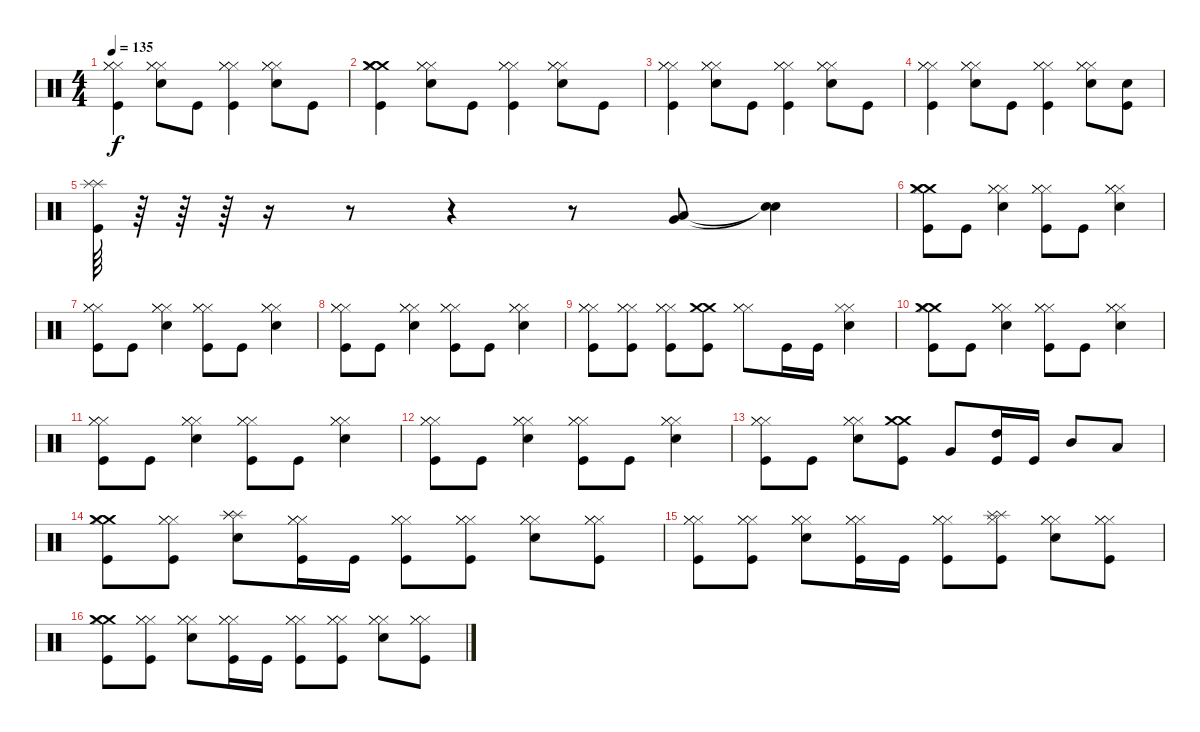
\track "" {instrument percussion}
\staff {score}
\articulation defaults
\ts (4 4)
\tempo 135
\clef neutral
\ks c
("Hi-Hat (closed)" "Hi-Hat (closed)" "Hi-Hat (closed)" "Kick (hit)").4{dy f} ("Hi-Hat (closed)" "Hi-Hat (closed)" "Hi-Hat (closed)" "Metronome (bell)").8 "Kick (hit)".8 ("Hi-Hat (closed)" "Hi-Hat (closed)" "Hi-Hat (closed)" "Kick (hit)").4 ("Hi-Hat (closed)" "Hi-Hat (closed)" "Hi-Hat (closed)" "Metronome (bell)").8 "Kick (hit)".8 |
("Crash medium (hit)" "Crash medium (hit)" "Hi-Hat (closed)" "Kick (hit)").4 ("Hi-Hat (closed)" "Hi-Hat (closed)" "Hi-Hat (closed)" "Metronome (bell)").8 "Kick (hit)".8 ("Hi-Hat (closed)" "Hi-Hat (closed)" "Hi-Hat (closed)" "Kick (hit)").4 ("Hi-Hat (closed)" "Hi-Hat (closed)" "Hi-Hat (closed)" "Metronome (bell)").8 "Kick (hit)".8 |
("Hi-Hat (closed)" "Hi-Hat (closed)" "Hi-Hat (closed)" "Kick (hit)").4 ("Hi-Hat (closed)" "Hi-Hat (closed)" "Hi-Hat (closed)" "Metronome (bell)").8 "Kick (hit)".8 ("Hi-Hat (closed)" "Hi-Hat (closed)" "Hi-Hat (closed)" "Kick (hit)").4 ("Hi-Hat (closed)" "Hi-Hat (closed)" "Hi-Hat (closed)" "Metronome (bell)").8 "Kick (hit)".8 |
("Hi-Hat (closed)" "Hi-Hat (closed)" "Hi-Hat (closed)" "Kick (hit)").4 ("Hi-Hat (closed)" "Hi-Hat (closed)" "Hi-Hat (closed)" "Metronome (bell)").8 "Kick (hit)".8 ("Hi-Hat (closed)" "Hi-Hat (closed)" "Hi-Hat (closed)" "Kick (hit)").4 ("Hi-Hat (closed)" "Hi-Hat (closed)" "Hi-Hat (closed)" "Metronome (bell)").8 ("Metronome (bell)" "Kick (hit)").8 |
("Splash (hit)" "Splash (hit)" "Kick (hit)").64 r.64 r.64 r.64 r.16 r.8 r.4 r.8 ("Very Low Tom (hit)" "Low Floor Tom (hit)").8 ("Snare (hit)"{t} "Snare (hit)"{t}).4 |
("Crash medium (hit)" "Crash medium (hit)" "Hi-Hat (closed)" "Kick (hit)").8 "Kick (hit)".8 ("Hi-Hat (closed)" "Hi-Hat (closed)" "Hi-Hat (closed)" "Metronome (bell)").4 ("Hi-Hat (closed)" "Hi-Hat (closed)" "Hi-Hat (closed)" "Kick (hit)").8 "Kick (hit)".8 ("Hi-Hat (closed)" "Hi-Hat (closed)" "Hi-Hat (closed)" "Metronome (bell)").4 |
("Hi-Hat (closed)" "Hi-Hat (closed)" "Hi-Hat (closed)" "Kick (hit)").8 "Kick (hit)".8 ("Hi-Hat (closed)" "Hi-Hat (closed)" "Hi-Hat (closed)" "Metronome (bell)").4 ("Hi-Hat (closed)" "Hi-Hat (closed)" "Hi-Hat (closed)" "Kick (hit)").8 "Kick (hit)".8 ("Hi-Hat (closed)" "Hi-Hat (closed)" "Hi-Hat (closed)" "Metronome (bell)").4 |
("Hi-Hat (closed)" "Hi-Hat (closed)" "Hi-Hat (closed)" "Kick (hit)").8 "Kick (hit)".8 ("Hi-Hat (closed)" "Hi-Hat (closed)" "Hi-Hat (closed)" "Metronome (bell)").4 ("Hi-Hat (closed)" "Hi-Hat (closed)" "Hi-Hat (closed)" "Kick (hit)").8 "Kick (hit)".8 ("Hi-Hat (closed)" "Hi-Hat (closed)" "Hi-Hat (closed)" "Metronome (bell)").4 |
("Hi-Hat (closed)" "Hi-Hat (closed)" "Hi-Hat (closed)" "Kick (hit)").8 ("Hi-Hat (closed)" "Hi-Hat (closed)" "Hi-Hat (closed)" "Kick (hit)").8 ("Hi-Hat (closed)" "Hi-Hat (closed)" "Hi-Hat (closed)" "Kick (hit)").8 ("Crash medium (hit)" "Crash medium (hit)" "Kick (hit)").8 ("Hi-Hat (closed)" "Hi-Hat (closed)" "Hi-Hat (closed)").8 "Kick (hit)".16 "Kick (hit)".16 ("Hi-Hat (closed)" "Hi-Hat (closed)" "Metronome (bell)").4 |
("Crash medium (hit)" "Crash medium (hit)" "Hi-Hat (closed)" "Kick (hit)").8 "Kick (hit)".8 ("Hi-Hat (closed)" "Hi-Hat (closed)" "Hi-Hat (closed)" "Metronome (bell)").4 ("Hi-Hat (closed)" "Hi-Hat (closed)" "Hi-Hat (closed)" "Kick (hit)").8 "Kick (hit)".8 ("Hi-Hat (closed)" "Hi-Hat (closed)" "Hi-Hat (closed)" "Metronome (bell)").4 |
("Hi-Hat (closed)" "Hi-Hat (closed)" "Hi-Hat (closed)" "Kick (hit)").8 "Kick (hit)".8 ("Hi-Hat (closed)" "Hi-Hat (closed)" "Hi-Hat (closed)" "Metronome (bell)").4 ("Hi-Hat (closed)" "Hi-Hat (closed)" "Hi-Hat (closed)" "Kick (hit)").8 "Kick (hit)".8 ("Hi-Hat (closed)" "Hi-Hat (closed)" "Hi-Hat (closed)" "Metronome (bell)").4 |
("Hi-Hat (closed)" "Hi-Hat (closed)" "Hi-Hat (closed)" "Kick (hit)").8 "Kick (hit)".8 ("Hi-Hat (closed)" "Hi-Hat (closed)" "Hi-Hat (closed)" "Metronome (bell)").4 ("Hi-Hat (closed)" "Hi-Hat (closed)" "Hi-Hat (closed)" "Kick (hit)").8 "Kick (hit)".8 ("Hi-Hat (closed)" "Hi-Hat (closed)" "Hi-Hat (closed)" "Metronome (bell)").4 |
("Hi-Hat (closed)" "Hi-Hat (closed)" "Hi-Hat (closed)" "Kick (hit)").8 "Kick (hit)".8 ("Hi-Hat (closed)" "Hi-Hat (closed)" "Hi-Hat (closed)" "Metronome (bell)").8 ("Crash medium (hit)" "Crash medium (hit)" "Kick (hit)").8 "Very Low Tom (hit)".8 ("High Tom (hit)" "Kick (hit)").16 "Kick (hit)".16 "Mid Tom (hit)".8 "Low Tom (hit)".8 |
("Crash medium (hit)" "Crash medium (hit)" "Hi-Hat (closed)" "Kick (hit)").8 ("Hi-Hat (closed)" "Hi-Hat (closed)" "Hi-Hat (closed)" "Kick (hit)").8 ("Splash (hit)" "Splash (hit)" "Splash (hit)" "Metronome (bell)").8 ("Hi-Hat (closed)" "Hi-Hat (closed)" "Hi-Hat (closed)" "Kick (hit)").16 "Kick (hit)".16 ("Hi-Hat (closed)" "Hi-Hat (closed)" "Hi-Hat (closed)" "Kick (hit)").8 ("Hi-Hat (closed)" "Hi-Hat (closed)" "Hi-Hat (closed)" "Kick (hit)").8 ("Hi-Hat (closed)" "Hi-Hat (closed)" "Hi-Hat (closed)" "Metronome (bell)").8 ("Hi-Hat (closed)" "Hi-Hat (closed)" "Hi-Hat (closed)" "Kick (hit)").8 |
("Hi-Hat (closed)" "Hi-Hat (closed)" "Hi-Hat (closed)" "Kick (hit)").8 ("Hi-Hat (closed)" "Hi-Hat (closed)" "Hi-Hat (closed)" "Kick (hit)").8 ("Hi-Hat (closed)" "Hi-Hat (closed)" "Hi-Hat (closed)" "Metronome (bell)").8 ("Hi-Hat (closed)" "Hi-Hat (closed)" "Hi-Hat (closed)" "Kick (hit)").16 "Kick (hit)".16 ("Hi-Hat (closed)" "Hi-Hat (closed)" "Hi-Hat (closed)" "Kick (hit)").8 ("Splash (hit)" "Splash (hit)" "Hi-Hat (closed)" "Kick (hit)").8 ("Hi-Hat (closed)" "Hi-Hat (closed)" "Hi-Hat (closed)" "Metronome (bell)").8 ("Hi-Hat (closed)" "Hi-Hat (closed)" "Hi-Hat (closed)" "Kick (hit)").8 |
("Crash medium (hit)" "Crash medium (hit)" "Hi-Hat (closed)" "Kick (hit)").8 ("Hi-Hat (closed)" "Hi-Hat (closed)" "Hi-Hat (closed)" "Kick (hit)").8 ("Hi-Hat (closed)" "Hi-Hat (closed)" "Hi-Hat (closed)" "Metronome (bell)").8 ("Hi-Hat (closed)" "Hi-Hat (closed)" "Hi-Hat (closed)" "Kick (hit)").16 "Kick (hit)".16 ("Hi-Hat (closed)" "Hi-Hat (closed)" "Hi-Hat (closed)" "Kick (hit)").8 ("Hi-Hat (closed)" "Hi-Hat (closed)" "Hi-Hat (closed)" "Kick (hit)").8 ("Hi-Hat (closed)" "Hi-Hat (closed)" "Hi-Hat (closed)" "Metronome (bell)").8 ("Hi-Hat (closed)" "Hi-Hat (closed)" "Hi-Hat (closed)" "Kick (hit)").8
